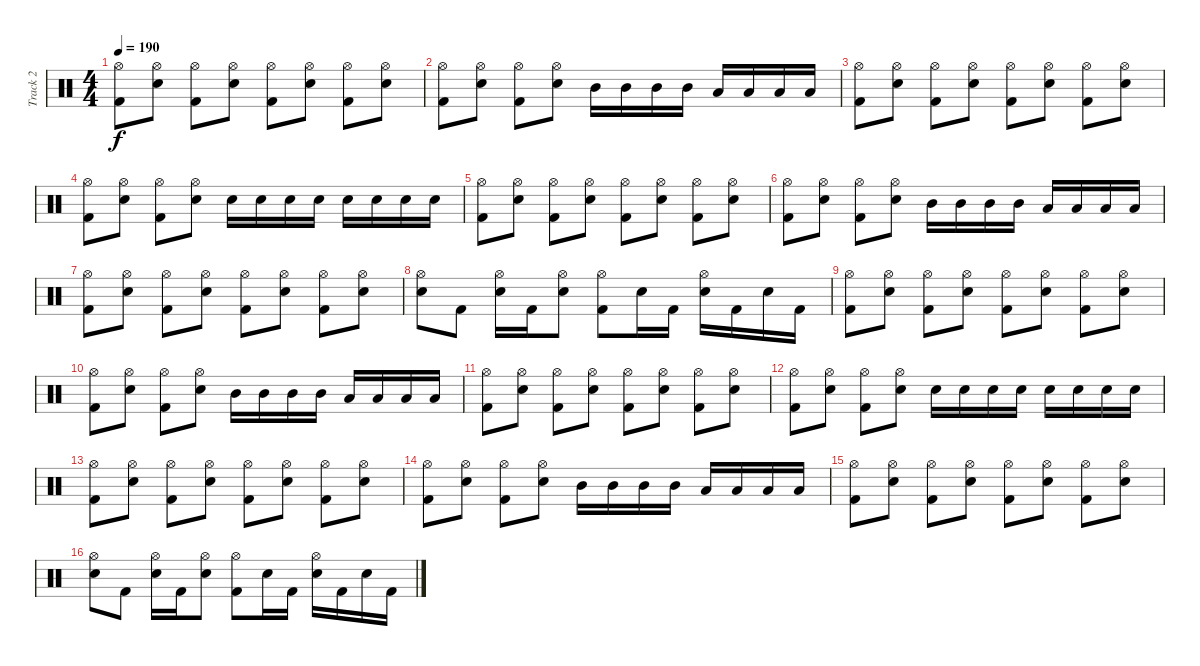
\track ("Track 2" "Track 2") {instrument percussion}
\staff {score}
\articulation defaults
\ts (4 4)
\tempo 190
\clef neutral
\ks c
("Hi-Hat (open)" "Kick (hit) 2").8{dy f} ("Hi-Hat (open)" "Snare (hit) 2").8 ("Hi-Hat (open)" "Kick (hit) 2").8 ("Hi-Hat (open)" "Snare (hit) 2").8 ("Hi-Hat (open)" "Kick (hit) 2").8 ("Hi-Hat (open)" "Snare (hit) 2").8 ("Hi-Hat (open)" "Kick (hit) 2").8 ("Hi-Hat (open)" "Snare (hit) 2").8 |
("Hi-Hat (open)" "Kick (hit) 2").8 ("Hi-Hat (open)" "Snare (hit) 2").8 ("Hi-Hat (open)" "Kick (hit) 2").8 ("Hi-Hat (open)" "Snare (hit) 2").8 "Mid Tom (hit)".16 "Mid Tom (hit)".16 "Mid Tom (hit)".16 "Mid Tom (hit)".16 "Low Tom (hit)".16 "Low Tom (hit)".16 "Low Tom (hit)".16 "Low Tom (hit)".16 |
("Hi-Hat (open)" "Kick (hit) 2").8 ("Hi-Hat (open)" "Snare (hit) 2").8 ("Hi-Hat (open)" "Kick (hit) 2").8 ("Hi-Hat (open)" "Snare (hit) 2").8 ("Hi-Hat (open)" "Kick (hit) 2").8 ("Hi-Hat (open)" "Snare (hit) 2").8 ("Hi-Hat (open)" "Kick (hit) 2").8 ("Hi-Hat (open)" "Snare (hit) 2").8 |
("Hi-Hat (open)" "Kick (hit) 2").8 ("Hi-Hat (open)" "Snare (hit) 2").8 ("Hi-Hat (open)" "Kick (hit) 2").8 ("Hi-Hat (open)" "Snare (hit) 2").8 "Snare (hit) 2".16 "Snare (hit) 2".16 "Snare (hit) 2".16 "Snare (hit) 2".16 "Snare (hit) 2".16 "Snare (hit) 2".16 "Snare (hit) 2".16 "Snare (hit) 2".16 |
("Hi-Hat (open)" "Kick (hit) 2").8 ("Hi-Hat (open)" "Snare (hit) 2").8 ("Hi-Hat (open)" "Kick (hit) 2").8 ("Hi-Hat (open)" "Snare (hit) 2").8 ("Hi-Hat (open)" "Kick (hit) 2").8 ("Hi-Hat (open)" "Snare (hit) 2").8 ("Hi-Hat (open)" "Kick (hit) 2").8 ("Hi-Hat (open)" "Snare (hit) 2").8 |
("Hi-Hat (open)" "Kick (hit) 2").8 ("Hi-Hat (open)" "Snare (hit) 2").8 ("Hi-Hat (open)" "Kick (hit) 2").8 ("Hi-Hat (open)" "Snare (hit) 2").8 "Mid Tom (hit)".16 "Mid Tom (hit)".16 "Mid Tom (hit)".16 "Mid Tom (hit)".16 "Low Tom (hit)".16 "Low Tom (hit)".16 "Low Tom (hit)".16 "Low Tom (hit)".16 |
("Hi-Hat (open)" "Kick (hit) 2").8 ("Hi-Hat (open)" "Snare (hit) 2").8 ("Hi-Hat (open)" "Kick (hit) 2").8 ("Hi-Hat (open)" "Snare (hit) 2").8 ("Hi-Hat (open)" "Kick (hit) 2").8 ("Hi-Hat (open)" "Snare (hit) 2").8 ("Hi-Hat (open)" "Kick (hit) 2").8 ("Hi-Hat (open)" "Snare (hit) 2").8 |
("Hi-Hat (open)" "Snare (hit) 2").8 "Kick (hit) 2".8 ("Hi-Hat (open)" "Snare (hit) 2").16 "Kick (hit) 2".16 ("Hi-Hat (open)" "Snare (hit) 2").8 ("Hi-Hat (open)" "Kick (hit) 2").8 "Snare (hit) 2".16 "Kick (hit) 2".16 ("Hi-Hat (open)" "Snare (hit) 2").16 "Kick (hit) 2".16 "Snare (hit) 2".16 "Kick (hit) 2".16 |
("Hi-Hat (open)" "Kick (hit) 2").8 ("Hi-Hat (open)" "Snare (hit) 2").8 ("Hi-Hat (open)" "Kick (hit) 2").8 ("Hi-Hat (open)" "Snare (hit) 2").8 ("Hi-Hat (open)" "Kick (hit) 2").8 ("Hi-Hat (open)" "Snare (hit) 2").8 ("Hi-Hat (open)" "Kick (hit) 2").8 ("Hi-Hat (open)" "Snare (hit) 2").8 |
("Hi-Hat (open)" "Kick (hit) 2").8 ("Hi-Hat (open)" "Snare (hit) 2").8 ("Hi-Hat (open)" "Kick (hit) 2").8 ("Hi-Hat (open)" "Snare (hit) 2").8 "Mid Tom (hit)".16 "Mid Tom (hit)".16 "Mid Tom (hit)".16 "Mid Tom (hit)".16 "Low Tom (hit)".16 "Low Tom (hit)".16 "Low Tom (hit)".16 "Low Tom (hit)".16 |
("Hi-Hat (open)" "Kick (hit) 2").8 ("Hi-Hat (open)" "Snare (hit) 2").8 ("Hi-Hat (open)" "Kick (hit) 2").8 ("Hi-Hat (open)" "Snare (hit) 2").8 ("Hi-Hat (open)" "Kick (hit) 2").8 ("Hi-Hat (open)" "Snare (hit) 2").8 ("Hi-Hat (open)" "Kick (hit) 2").8 ("Hi-Hat (open)" "Snare (hit) 2").8 |
("Hi-Hat (open)" "Kick (hit) 2").8 ("Hi-Hat (open)" "Snare (hit) 2").8 ("Hi-Hat (open)" "Kick (hit) 2").8 ("Hi-Hat (open)" "Snare (hit) 2").8 "Snare (hit) 2".16 "Snare (hit) 2".16 "Snare (hit) 2".16 "Snare (hit) 2".16 "Snare (hit) 2".16 "Snare (hit) 2".16 "Snare (hit) 2".16 "Snare (hit) 2".16 |
("Hi-Hat (open)" "Kick (hit) 2").8 ("Hi-Hat (open)" "Snare (hit) 2").8 ("Hi-Hat (open)" "Kick (hit) 2").8 ("Hi-Hat (open)" "Snare (hit) 2").8 ("Hi-Hat (open)" "Kick (hit) 2").8 ("Hi-Hat (open)" "Snare (hit) 2").8 ("Hi-Hat (open)" "Kick (hit) 2").8 ("Hi-Hat (open)" "Snare (hit) 2").8 |
("Hi-Hat (open)" "Kick (hit) 2").8 ("Hi-Hat (open)" "Snare (hit) 2").8 ("Hi-Hat (open)" "Kick (hit) 2").8 ("Hi-Hat (open)" "Snare (hit) 2").8 "Mid Tom (hit)".16 "Mid Tom (hit)".16 "Mid Tom (hit)".16 "Mid Tom (hit)".16 "Low Tom (hit)".16 "Low Tom (hit)".16 "Low Tom (hit)".16 "Low Tom (hit)".16 |
("Hi-Hat (open)" "Kick (hit) 2").8 ("Hi-Hat (open)" "Snare (hit) 2").8 ("Hi-Hat (open)" "Kick (hit) 2").8 ("Hi-Hat (open)" "Snare (hit) 2").8 ("Hi-Hat (open)" "Kick (hit) 2").8 ("Hi-Hat (open)" "Snare (hit) 2").8 ("Hi-Hat (open)" "Kick (hit) 2").8 ("Hi-Hat (open)" "Snare (hit) 2").8 |
("Hi-Hat (open)" "Snare (hit) 2").8 "Kick (hit) 2".8 ("Hi-Hat (open)" "Snare (hit) 2").16 "Kick (hit) 2".16 ("Hi-Hat (open)" "Snare (hit) 2").8 ("Hi-Hat (open)" "Kick (hit) 2").8 "Snare (hit) 2".16 "Kick (hit) 2".16 ("Hi-Hat (open)" "Snare (hit) 2").16 "Kick (hit) 2".16 "Snare (hit) 2".16 "Kick (hit) 2".16
